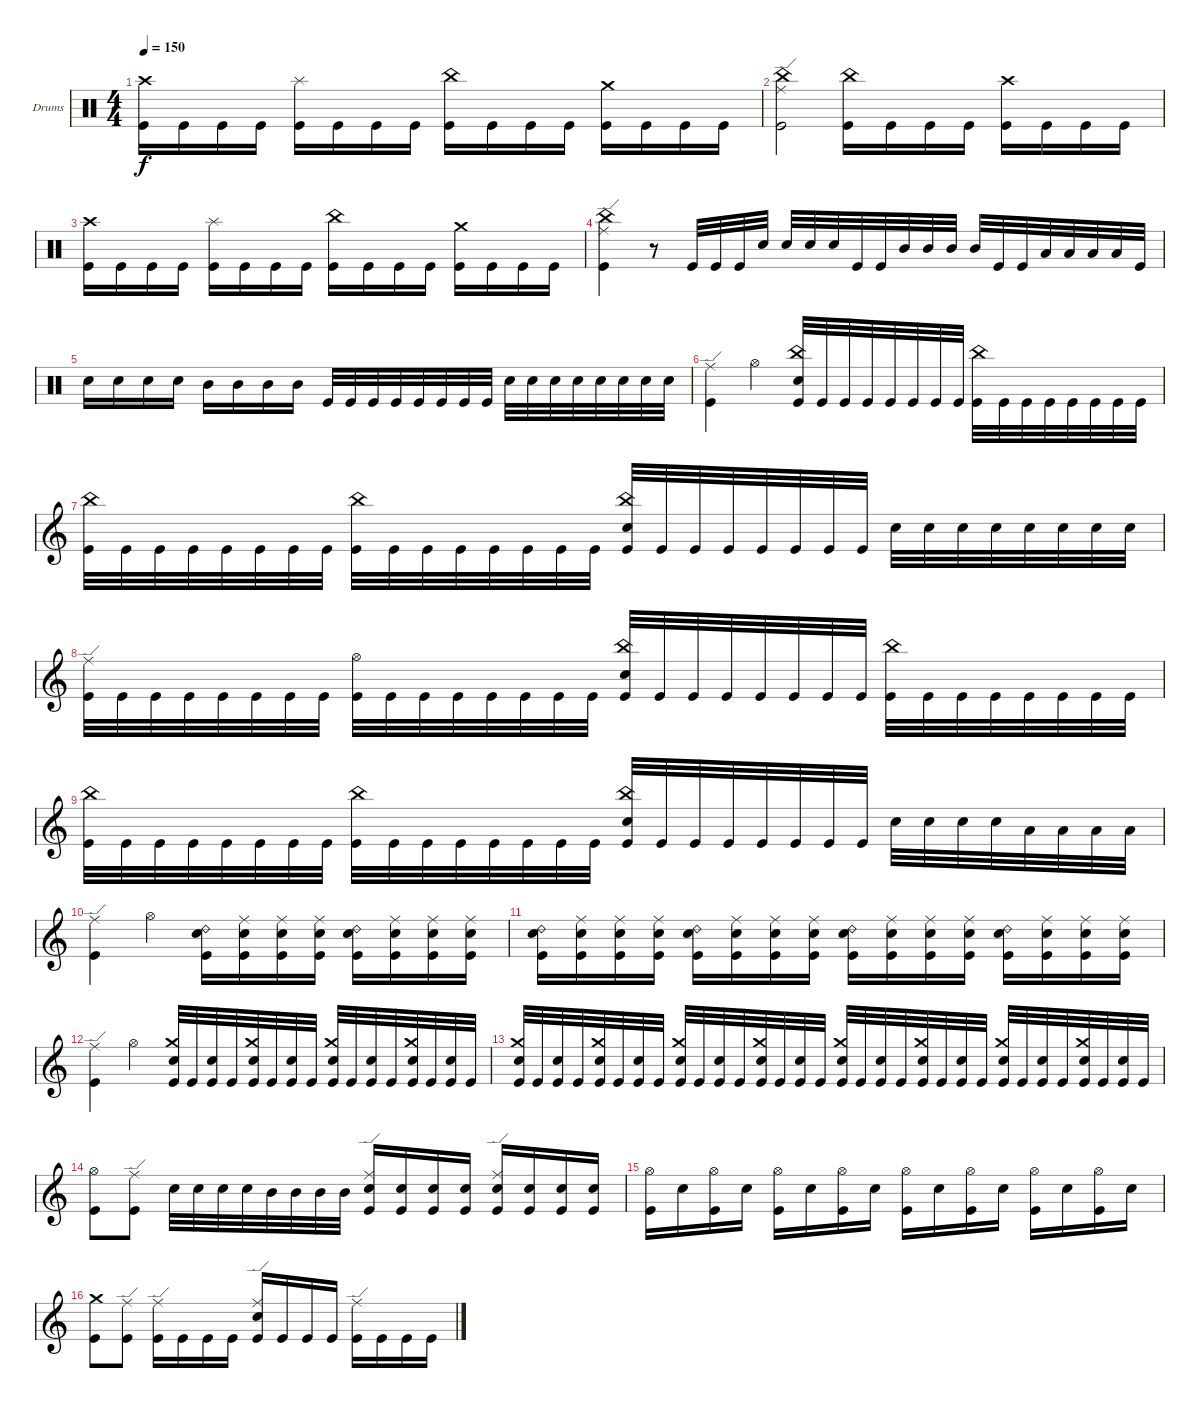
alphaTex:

\defaultSystemsLayout 4
\bracketExtendMode groupsimilarinstruments
\firstSystemTrackNameOrientation horizontal
\otherSystemsTrackNameOrientation horizontal
\track ("Drumkit" "Drums") {instrument percussion}
\staff {score}
\articulation defaults
\ts (4 4)
\tempo 150
\clef neutral
\ks c
("Kick (hit)" "Crash high (hit)").16{dy f} "Kick (hit)".16 "Kick (hit)".16 "Kick (hit)".16 ("Kick (hit)" "Splash (hit)").16 "Kick (hit)".16 "Kick (hit)".16 "Kick (hit)".16 ("Kick (hit)" "China (hit)").16 "Kick (hit)".16 "Kick (hit)".16 "Kick (hit)".16 ("Kick (hit)" "Crash medium (hit)").16 "Kick (hit)".16 "Kick (hit)".16 "Kick (hit)".16 |
("Kick (hit)" "Ride (edge)" "China (hit)").2 ("Kick (hit)" "China (hit)").16 "Kick (hit)".16 "Kick (hit)".16 "Kick (hit)".16 ("Kick (hit)" "Crash high (hit)").16 "Kick (hit)".16 "Kick (hit)".16 "Kick (hit)".16 |
("Kick (hit)" "Crash high (hit)").16 "Kick (hit)".16 "Kick (hit)".16 "Kick (hit)".16 ("Kick (hit)" "Splash (hit)").16 "Kick (hit)".16 "Kick (hit)".16 "Kick (hit)".16 ("Kick (hit)" "China (hit)").16 "Kick (hit)".16 "Kick (hit)".16 "Kick (hit)".16 ("Kick (hit)" "Crash medium (hit)").16 "Kick (hit)".16 "Kick (hit)".16 "Kick (hit)".16 |
("Kick (hit)" "China (hit)" "Ride (edge)").4 r.8 "Kick (hit)".32 "Kick (hit)".32 "Kick (hit)".32 "Snare (hit) 2".32 "Snare (hit) 2".32 "Snare (hit) 2".32 "Snare (hit) 2".32 "Kick (hit)".32 "Kick (hit)".32 "Mid Tom (hit)".32 "Mid Tom (hit)".32 "Mid Tom (hit)".32 "Mid Tom (hit)".32 "Kick (hit)".32 "Kick (hit)".32 "Low Tom (hit)".32 "Low Tom (hit)".32 "Low Tom (hit)".32 "Low Tom (hit)".32 "Kick (hit)".32 |
"Snare (hit) 2".16 "Snare (hit) 2".16 "Snare (hit) 2".16 "Snare (hit) 2".16 "Mid Tom (hit)".16 "Mid Tom (hit)".16 "Mid Tom (hit)".16 "Mid Tom (hit)".16 "Kick (hit)".32 "Kick (hit)".32 "Kick (hit)".32 "Kick (hit)".32 "Kick (hit)".32 "Kick (hit)".32 "Kick (hit)".32 "Kick (hit)".32 "Snare (hit) 2".32 "Snare (hit) 2".32 "Snare (hit) 2".32 "Snare (hit) 2".32 "Snare (hit) 2".32 "Snare (hit) 2".32 "Snare (hit) 2".32 "Snare (hit) 2".32 |
("Kick (hit)" "Ride (edge)").4 "Hi-Hat (open)".4 ("Kick (hit)" "China (hit)" "Snare (hit) 2").32 "Kick (hit)".32 "Kick (hit)".32 "Kick (hit)".32 "Kick (hit)".32 "Kick (hit)".32 "Kick (hit)".32 "Kick (hit)".32 ("Kick (hit)" "China (hit)").32 "Kick (hit)".32 "Kick (hit)".32 "Kick (hit)".32 "Kick (hit)".32 "Kick (hit)".32 "Kick (hit)".32 "Kick (hit)".32 |
\clef g2
("Kick (hit)" "China (hit)").32 "Kick (hit)".32 "Kick (hit)".32 "Kick (hit)".32 "Kick (hit)".32 "Kick (hit)".32 "Kick (hit)".32 "Kick (hit)".32 ("Kick (hit)" "China (hit)").32 "Kick (hit)".32 "Kick (hit)".32 "Kick (hit)".32 "Kick (hit)".32 "Kick (hit)".32 "Kick (hit)".32 "Kick (hit)".32 ("Kick (hit)" "China (hit)" "Snare (hit) 2").32 "Kick (hit)".32 "Kick (hit)".32 "Kick (hit)".32 "Kick (hit)".32 "Kick (hit)".32 "Kick (hit)".32 "Kick (hit)".32 "Snare (hit) 2".32 "Snare (hit) 2".32 "Snare (hit) 2".32 "Snare (hit) 2".32 "Snare (hit) 2".32 "Snare (hit) 2".32 "Snare (hit) 2".32 "Snare (hit) 2".32 |
("Kick (hit)" "Ride (edge)").32 "Kick (hit)".32 "Kick (hit)".32 "Kick (hit)".32 "Kick (hit)".32 "Kick (hit)".32 "Kick (hit)".32 "Kick (hit)".32 ("Kick (hit)" "Hi-Hat (open)").32 "Kick (hit)".32 "Kick (hit)".32 "Kick (hit)".32 "Kick (hit)".32 "Kick (hit)".32 "Kick (hit)".32 "Kick (hit)".32 ("Kick (hit)" "China (hit)" "Snare (hit) 2").32 "Kick (hit)".32 "Kick (hit)".32 "Kick (hit)".32 "Kick (hit)".32 "Kick (hit)".32 "Kick (hit)".32 "Kick (hit)".32 ("Kick (hit)" "China (hit)").32 "Kick (hit)".32 "Kick (hit)".32 "Kick (hit)".32 "Kick (hit)".32 "Kick (hit)".32 "Kick (hit)".32 "Kick (hit)".32 |
("Kick (hit)" "China (hit)").32 "Kick (hit)".32 "Kick (hit)".32 "Kick (hit)".32 "Kick (hit)".32 "Kick (hit)".32 "Kick (hit)".32 "Kick (hit)".32 ("Kick (hit)" "China (hit)").32 "Kick (hit)".32 "Kick (hit)".32 "Kick (hit)".32 "Kick (hit)".32 "Kick (hit)".32 "Kick (hit)".32 "Kick (hit)".32 ("Kick (hit)" "China (hit)" "Snare (hit) 2").32 "Kick (hit)".32 "Kick (hit)".32 "Kick (hit)".32 "Kick (hit)".32 "Kick (hit)".32 "Kick (hit)".32 "Kick (hit)".32 "Snare (hit) 2".32 "Snare (hit) 2".32 "Snare (hit) 2".32 "Snare (hit) 2".32 "Low Tom (hit)".32 "Low Tom (hit)".32 "Low Tom (hit)".32 "Low Tom (hit)".32 |
("Kick (hit)" "Ride (edge)").4 "Hi-Hat (open)".4 ("Kick (hit)" "Snare (hit) 2" "Ride (bell) 2").16 ("Kick (hit)" "Snare (hit) 2" "Ride (middle)").16 ("Kick (hit)" "Snare (hit) 2" "Ride (middle)").16 ("Kick (hit)" "Snare (hit) 2" "Ride (middle)").16 ("Kick (hit)" "Snare (hit) 2" "Ride (bell) 2").16 ("Kick (hit)" "Snare (hit) 2" "Ride (middle)").16 ("Kick (hit)" "Snare (hit) 2" "Ride (middle)").16 ("Kick (hit)" "Snare (hit) 2" "Ride (middle)").16 |
("Kick (hit)" "Snare (hit) 2" "Ride (bell) 2").16 ("Kick (hit)" "Snare (hit) 2" "Ride (middle)").16 ("Kick (hit)" "Snare (hit) 2" "Ride (middle)").16 ("Kick (hit)" "Snare (hit) 2" "Ride (middle)").16 ("Kick (hit)" "Snare (hit) 2" "Ride (bell) 2").16 ("Kick (hit)" "Snare (hit) 2" "Ride (middle)").16 ("Kick (hit)" "Snare (hit) 2" "Ride (middle)").16 ("Kick (hit)" "Snare (hit) 2" "Ride (middle)").16 ("Kick (hit)" "Snare (hit) 2" "Ride (bell) 2").16 ("Kick (hit)" "Snare (hit) 2" "Ride (middle)").16 ("Kick (hit)" "Snare (hit) 2" "Ride (middle)").16 ("Kick (hit)" "Snare (hit) 2" "Ride (middle)").16 ("Kick (hit)" "Snare (hit) 2" "Ride (bell) 2").16 ("Kick (hit)" "Snare (hit) 2" "Ride (middle)").16 ("Kick (hit)" "Snare (hit) 2" "Ride (middle)").16 ("Kick (hit)" "Snare (hit) 2" "Ride (middle)").16 |
("Kick (hit)" "Ride (edge)").4 "Hi-Hat (open)".4 ("Kick (hit)" "Snare (hit) 2" "Crash medium (hit)").32 "Kick (hit)".32 ("Kick (hit)" "Snare (hit) 2").32 "Kick (hit)".32 ("Kick (hit)" "Snare (hit) 2" "Crash medium (hit)").32 "Kick (hit)".32 ("Kick (hit)" "Snare (hit) 2").32 "Kick (hit)".32 ("Kick (hit)" "Snare (hit) 2" "Crash medium (hit)").32 "Kick (hit)".32 ("Kick (hit)" "Snare (hit) 2").32 "Kick (hit)".32 ("Kick (hit)" "Snare (hit) 2" "Crash medium (hit)").32 "Kick (hit)".32 ("Kick (hit)" "Snare (hit) 2").32 "Kick (hit)".32 |
("Kick (hit)" "Snare (hit) 2" "Crash medium (hit)").32 "Kick (hit)".32 ("Kick (hit)" "Snare (hit) 2").32 "Kick (hit)".32 ("Kick (hit)" "Snare (hit) 2" "Crash medium (hit)").32 "Kick (hit)".32 ("Kick (hit)" "Snare (hit) 2").32 "Kick (hit)".32 ("Kick (hit)" "Snare (hit) 2" "Crash medium (hit)").32 "Kick (hit)".32 ("Kick (hit)" "Snare (hit) 2").32 "Kick (hit)".32 ("Kick (hit)" "Snare (hit) 2" "Crash medium (hit)").32 "Kick (hit)".32 ("Kick (hit)" "Snare (hit) 2").32 "Kick (hit)".32 ("Kick (hit)" "Snare (hit) 2" "Crash medium (hit)").32 "Kick (hit)".32 ("Kick (hit)" "Snare (hit) 2").32 "Kick (hit)".32 ("Kick (hit)" "Snare (hit) 2" "Crash medium (hit)").32 "Kick (hit)".32 ("Kick (hit)" "Snare (hit) 2").32 "Kick (hit)".32 ("Kick (hit)" "Snare (hit) 2" "Crash medium (hit)").32 "Kick (hit)".32 ("Kick (hit)" "Snare (hit) 2").32 "Kick (hit)".32 ("Kick (hit)" "Snare (hit) 2" "Crash medium (hit)").32 "Kick (hit)".32 ("Kick (hit)" "Snare (hit) 2").32 "Kick (hit)".32 |
("Kick (hit)" "Hi-Hat (open)").8 ("Kick (hit)" "Ride (edge)").8 "Snare (hit) 2".32 "Snare (hit) 2".32 "Snare (hit) 2".32 "Snare (hit) 2".32 "Mid Tom (hit)".32 "Mid Tom (hit)".32 "Mid Tom (hit)".32 "Mid Tom (hit)".32 ("Kick (hit)" "Snare (hit) 2" "Ride (edge)").16 ("Kick (hit)" "Snare (hit) 2").16 ("Kick (hit)" "Snare (hit) 2").16 ("Kick (hit)" "Snare (hit) 2").16 ("Kick (hit)" "Snare (hit) 2" "Ride (edge)").16 ("Kick (hit)" "Snare (hit) 2").16 ("Kick (hit)" "Snare (hit) 2").16 ("Kick (hit)" "Snare (hit) 2").16 |
("Kick (hit)" "Hi-Hat (open)").16 "Snare (hit) 2".16 ("Kick (hit)" "Hi-Hat (open)").16 "Snare (hit) 2".16 ("Kick (hit)" "Hi-Hat (open)").16 "Snare (hit) 2".16 ("Kick (hit)" "Hi-Hat (open)").16 "Snare (hit) 2".16 ("Kick (hit)" "Hi-Hat (open)").16 "Snare (hit) 2".16 ("Kick (hit)" "Hi-Hat (open)").16 "Snare (hit) 2".16 ("Kick (hit)" "Hi-Hat (open)").16 "Snare (hit) 2".16 ("Kick (hit)" "Hi-Hat (open)").16 "Snare (hit) 2".16 |
("Kick (hit)" "Crash medium (hit)").8 ("Kick (hit)" "Ride (edge)").8 ("Kick (hit)" "Ride (edge)").16 "Kick (hit)".16 "Kick (hit)".16 "Kick (hit)".16 ("Kick (hit)" "Snare (hit) 2" "Ride (edge)").16 "Kick (hit)".16 "Kick (hit)".16 "Kick (hit)".16 ("Kick (hit)" "Ride (edge)").16 "Kick (hit)".16 "Kick (hit)".16 "Kick (hit)".16
